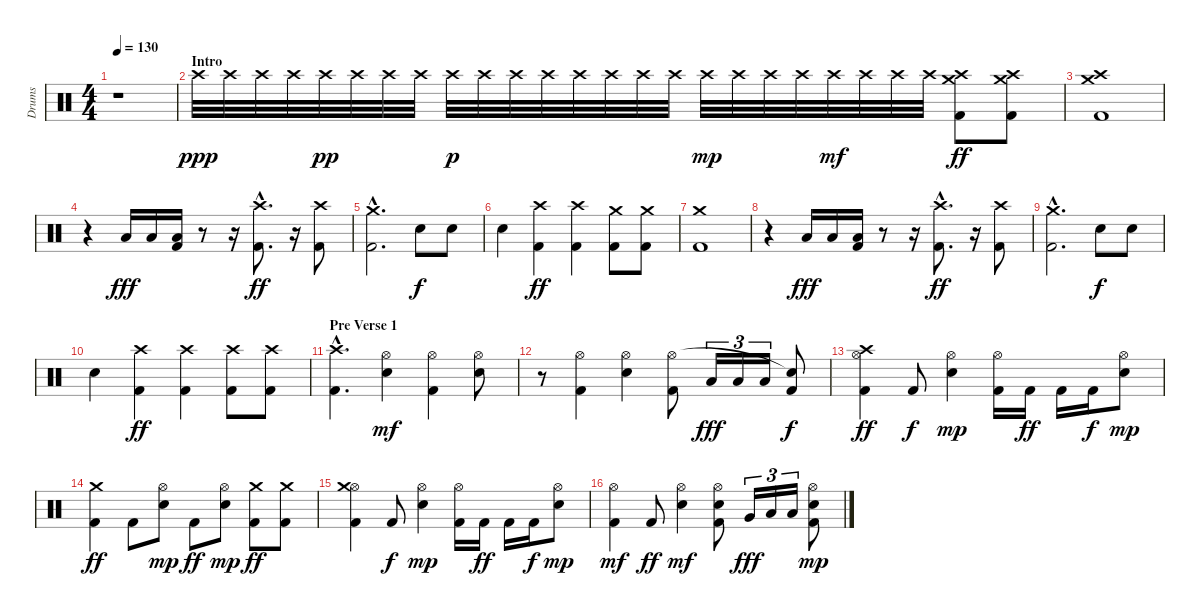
\track ("Drums" "Drums") {instrument percussion}
\staff {score}
\articulation defaults
\ts (4 4)
\tempo 130
\clef neutral
\ks c
r.1{dy ppp} |
\section ("" "Intro")
"Crash high (hit)".32 "Crash high (hit)".32 "Crash high (hit)".32 "Crash high (hit)".32 "Crash high (hit)".32{dy pp} "Crash high (hit)".32 "Crash high (hit)".32 "Crash high (hit)".32 "Crash high (hit)".32{dy p} "Crash high (hit)".32 "Crash high (hit)".32 "Crash high (hit)".32 "Crash high (hit)".32 "Crash high (hit)".32 "Crash high (hit)".32 "Crash high (hit)".32 "Crash high (hit)".32{dy mp} "Crash high (hit)".32 "Crash high (hit)".32 "Crash high (hit)".32 "Crash high (hit)".32{dy mf} "Crash high (hit)".32 "Crash high (hit)".32 "Crash high (hit)".32 ("Kick (hit) 2" "Crash high (hit)" "Crash medium (hit)").8{dy ff} ("Kick (hit) 2" "Crash high (hit)" "Crash medium (hit)").8 |
("Kick (hit) 2" "Crash high (hit)" "Crash medium (hit)").1 |
r.4 "Low Tom (hit)".16{dy fff} "Low Tom (hit)".16 ("Kick (hit) 2" "Low Floor Tom (hit)").16 r.8 r.16 ("Kick (hit) 2"{hac} "Crash high (hit)"{hac}).8{d dy ff} r.16 ("Kick (hit) 2" "Crash high (hit)").8 |
("Kick (hit) 2"{hac} "Crash medium (hit)"{hac}).2{d} "Snare (hit) 2".8{dy f} "Snare (hit) 2".8 |
"Snare (hit) 2".4 ("Kick (hit) 2" "Crash high (hit)").4{dy ff} ("Kick (hit) 2" "Crash high (hit)").4 ("Kick (hit) 2" "Crash medium (hit)").8 ("Kick (hit) 2" "Crash medium (hit)").8 |
("Kick (hit) 2" "Crash medium (hit)").1 |
r.4 "Low Tom (hit)".16{dy fff} "Low Tom (hit)".16 ("Kick (hit) 2" "Low Floor Tom (hit)").16 r.8 r.16 ("Kick (hit) 2"{hac} "Crash high (hit)"{hac}).8{d dy ff} r.16 ("Kick (hit) 2" "Crash high (hit)").8 |
("Kick (hit) 2"{hac} "Crash medium (hit)"{hac}).2{d} "Snare (hit) 2".8{dy f} "Snare (hit) 2".8 |
"Snare (hit) 2".4 ("Kick (hit) 2" "Crash high (hit)").4{dy ff} ("Kick (hit) 2" "Crash high (hit)").4 ("Kick (hit) 2" "Crash high (hit)").8 ("Kick (hit) 2" "Crash high (hit)").8 |
\section ("" "Pre Verse 1")
("Kick (hit) 2"{hac} "Crash high (hit)"{hac}).4{d} ("Hi-Hat (open)" "Snare (hit) 2").4{dy mf} ("Kick (hit) 2" "Hi-Hat (open)").4 ("Hi-Hat (open)" "Snare (hit) 2").8 |
r.8 ("Kick (hit) 2" "Hi-Hat (open)").4 ("Hi-Hat (open)" "Snare (hit) 2").4 ("Kick (hit) 2" "Hi-Hat (open)").8 "Low Floor Tom (hit)".16{tu (3 2) dy fff} "Low Floor Tom (hit)".16{tu (3 2)} "Low Floor Tom (hit)".16{tu (3 2)} ("Kick (hit) 2" "Snare (hit)"{t}).8{dy f} |
("Kick (hit) 2" "Hi-Hat (open)" "Crash high (hit)").4{dy ff} "Kick (hit) 2".8{dy f} ("Hi-Hat (open)" "Snare (hit) 2").4{dy mp} ("Kick (hit) 2" "Hi-Hat (open)").16 "Kick (hit) 2".16{dy ff} "Kick (hit) 2".16 "Kick (hit) 2".16{dy f} ("Hi-Hat (open)" "Snare (hit) 2").8{dy mp} |
("Kick (hit) 2" "Crash medium (hit)").4{dy ff} "Kick (hit) 2".8 ("Hi-Hat (open)" "Snare (hit) 2").8{dy mp} "Kick (hit) 2".8{dy ff} ("Hi-Hat (open)" "Snare (hit) 2").8{dy mp} ("Kick (hit) 2" "Crash medium (hit)").8{dy ff} ("Kick (hit) 2" "Crash medium (hit)").8 |
("Kick (hit) 2" "Hi-Hat (open)" "Crash medium (hit)").4 "Kick (hit) 2".8{dy f} ("Hi-Hat (open)" "Snare (hit) 2").4{dy mp} ("Kick (hit) 2" "Hi-Hat (open)").16 "Kick (hit) 2".16{dy ff} "Kick (hit) 2".16 "Kick (hit) 2".16{dy f} ("Hi-Hat (open)" "Snare (hit) 2").8{dy mp} |
("Kick (hit) 2" "Hi-Hat (open)").4{dy mf} "Kick (hit) 2".8{dy ff} ("Hi-Hat (open)" "Snare (hit) 2").4{dy mf} ("Kick (hit) 2" "Hi-Hat (open)" "Snare (hit) 2").8 "Very Low Tom (hit)".16{tu (3 2) dy fff} "Low Floor Tom (hit)".16{tu (3 2)} "Low Floor Tom (hit)".16{tu (3 2)} ("Kick (hit) 2" "Hi-Hat (open)" "Snare (hit) 2").8{dy mp}
